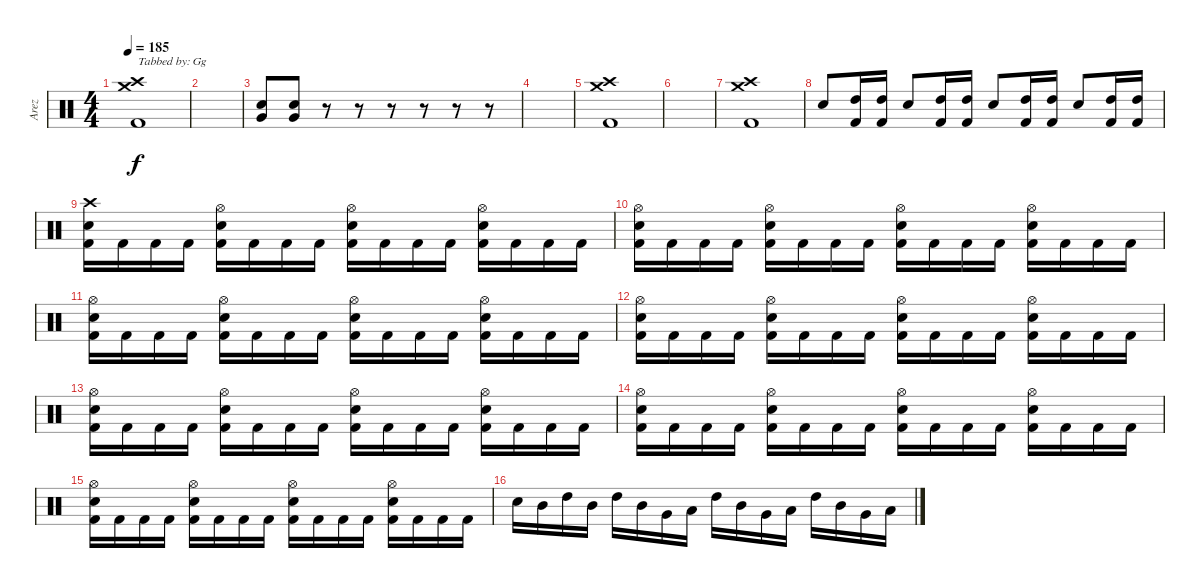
\track ("Arez" "Arez") {instrument percussion}
\staff {score}
\articulation defaults
\ts (4 4)
\tempo 185
\clef neutral
\ks c
("Crash high (hit)" "Kick (hit) 2" "Crash medium (hit)").1{txt "Tabbed by: Gg" dy f} |
|
("Electric Snare (hit)" "Very Low Tom (hit)").8 ("Electric Snare (hit)" "Very Low Tom (hit)").8 r.8 r.8 r.8 r.8 r.8 r.8 |
|
("Crash high (hit)" "Kick (hit) 2" "Crash medium (hit)").1 |
|
("Crash high (hit)" "Kick (hit) 2" "Crash medium (hit)").1 |
"Electric Snare (hit)".8 ("High Tom (hit)" "Kick (hit) 2").16 ("High Tom (hit)" "Kick (hit) 2").16 "Electric Snare (hit)".8 ("High Tom (hit)" "Kick (hit) 2").16 ("High Tom (hit)" "Kick (hit) 2").16 "Electric Snare (hit)".8 ("High Tom (hit)" "Kick (hit) 2").16 ("High Tom (hit)" "Kick (hit) 2").16 "Electric Snare (hit)".8 ("High Tom (hit)" "Kick (hit) 2").16 ("High Tom (hit)" "Kick (hit) 2").16 |
("Crash high (hit)" "Electric Snare (hit)" "Kick (hit) 2").16 "Kick (hit) 2".16 "Kick (hit) 2".16 "Kick (hit) 2".16 ("Kick (hit) 2" "Electric Snare (hit)" "Hi-Hat (open)").16 "Kick (hit) 2".16 "Kick (hit) 2".16 "Kick (hit) 2".16 ("Kick (hit) 2" "Hi-Hat (open)" "Electric Snare (hit)").16 "Kick (hit) 2".16 "Kick (hit) 2".16 "Kick (hit) 2".16 ("Kick (hit) 2" "Electric Snare (hit)" "Hi-Hat (open)").16 "Kick (hit) 2".16 "Kick (hit) 2".16 "Kick (hit) 2".16 |
("Kick (hit) 2" "Electric Snare (hit)" "Hi-Hat (open)").16 "Kick (hit) 2".16 "Kick (hit) 2".16 "Kick (hit) 2".16 ("Kick (hit) 2" "Hi-Hat (open)" "Electric Snare (hit)").16 "Kick (hit) 2".16 "Kick (hit) 2".16 "Kick (hit) 2".16 ("Kick (hit) 2" "Electric Snare (hit)" "Hi-Hat (open)").16 "Kick (hit) 2".16 "Kick (hit) 2".16 "Kick (hit) 2".16 ("Kick (hit) 2" "Electric Snare (hit)" "Hi-Hat (open)").16 "Kick (hit) 2".16 "Kick (hit) 2".16 "Kick (hit) 2".16 |
("Kick (hit) 2" "Electric Snare (hit)" "Hi-Hat (open)").16 "Kick (hit) 2".16 "Kick (hit) 2".16 "Kick (hit) 2".16 ("Kick (hit) 2" "Hi-Hat (open)" "Electric Snare (hit)").16 "Kick (hit) 2".16 "Kick (hit) 2".16 "Kick (hit) 2".16 ("Kick (hit) 2" "Electric Snare (hit)" "Hi-Hat (open)").16 "Kick (hit) 2".16 "Kick (hit) 2".16 "Kick (hit) 2".16 ("Kick (hit) 2" "Electric Snare (hit)" "Hi-Hat (open)").16 "Kick (hit) 2".16 "Kick (hit) 2".16 "Kick (hit) 2".16 |
("Kick (hit) 2" "Electric Snare (hit)" "Hi-Hat (open)").16 "Kick (hit) 2".16 "Kick (hit) 2".16 "Kick (hit) 2".16 ("Kick (hit) 2" "Hi-Hat (open)" "Electric Snare (hit)").16 "Kick (hit) 2".16 "Kick (hit) 2".16 "Kick (hit) 2".16 ("Kick (hit) 2" "Electric Snare (hit)" "Hi-Hat (open)").16 "Kick (hit) 2".16 "Kick (hit) 2".16 "Kick (hit) 2".16 ("Kick (hit) 2" "Electric Snare (hit)" "Hi-Hat (open)").16 "Kick (hit) 2".16 "Kick (hit) 2".16 "Kick (hit) 2".16 |
("Kick (hit) 2" "Electric Snare (hit)" "Hi-Hat (open)").16 "Kick (hit) 2".16 "Kick (hit) 2".16 "Kick (hit) 2".16 ("Kick (hit) 2" "Hi-Hat (open)" "Electric Snare (hit)").16 "Kick (hit) 2".16 "Kick (hit) 2".16 "Kick (hit) 2".16 ("Kick (hit) 2" "Electric Snare (hit)" "Hi-Hat (open)").16 "Kick (hit) 2".16 "Kick (hit) 2".16 "Kick (hit) 2".16 ("Kick (hit) 2" "Electric Snare (hit)" "Hi-Hat (open)").16 "Kick (hit) 2".16 "Kick (hit) 2".16 "Kick (hit) 2".16 |
("Kick (hit) 2" "Electric Snare (hit)" "Hi-Hat (open)").16 "Kick (hit) 2".16 "Kick (hit) 2".16 "Kick (hit) 2".16 ("Kick (hit) 2" "Hi-Hat (open)" "Electric Snare (hit)").16 "Kick (hit) 2".16 "Kick (hit) 2".16 "Kick (hit) 2".16 ("Kick (hit) 2" "Electric Snare (hit)" "Hi-Hat (open)").16 "Kick (hit) 2".16 "Kick (hit) 2".16 "Kick (hit) 2".16 ("Kick (hit) 2" "Electric Snare (hit)" "Hi-Hat (open)").16 "Kick (hit) 2".16 "Kick (hit) 2".16 "Kick (hit) 2".16 |
("Kick (hit) 2" "Electric Snare (hit)" "Hi-Hat (open)").16 "Kick (hit) 2".16 "Kick (hit) 2".16 "Kick (hit) 2".16 ("Kick (hit) 2" "Hi-Hat (open)" "Electric Snare (hit)").16 "Kick (hit) 2".16 "Kick (hit) 2".16 "Kick (hit) 2".16 ("Kick (hit) 2" "Electric Snare (hit)" "Hi-Hat (open)").16 "Kick (hit) 2".16 "Kick (hit) 2".16 "Kick (hit) 2".16 ("Kick (hit) 2" "Electric Snare (hit)" "Hi-Hat (open)").16 "Kick (hit) 2".16 "Kick (hit) 2".16 "Kick (hit) 2".16 |
"Electric Snare (hit)".16 "Mid Tom (hit)".16 "High Tom (hit)".16 "Mid Tom (hit)".16 "High Tom (hit)".16 "Mid Tom (hit)".16 "Very Low Tom (hit)".16 "Low Floor Tom (hit)".16 "High Tom (hit)".16 "Mid Tom (hit)".16 "Very Low Tom (hit)".16 "Low Floor Tom (hit)".16 "High Tom (hit)".16 "Mid Tom (hit)".16 "Very Low Tom (hit)".16 "Low Floor Tom (hit)".16
